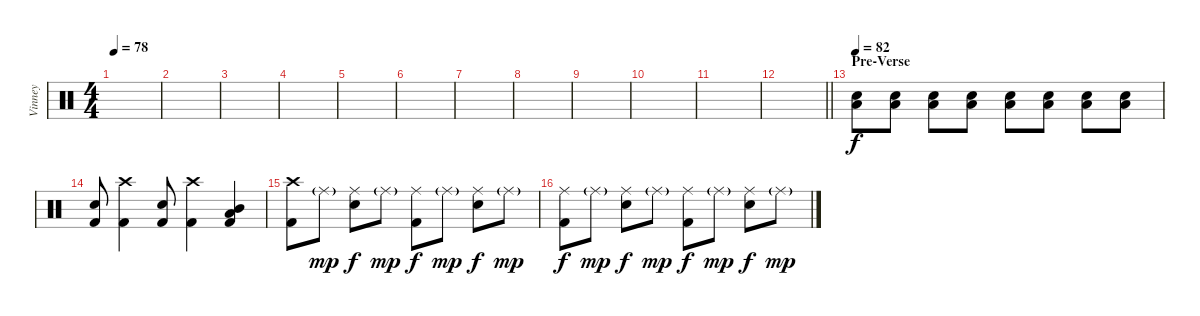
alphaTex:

\track ("Vinney" "Vinney") {instrument percussion}
\staff {score}
\articulation defaults
\ts (4 4)
\tempo 78
\clef neutral
\ks c
|
|
|
|
|
|
|
|
|
|
|
\barLineRight lightlight
|
\section ("" "Pre-Verse")
\tempo 82
("Electric Snare (hit)" "Low Tom (hit)").8 ("Electric Snare (hit)" "Low Tom (hit)").8 ("Electric Snare (hit)" "Low Tom (hit)").8 ("Electric Snare (hit)" "Low Tom (hit)").8 ("Electric Snare (hit)" "Low Tom (hit)").8 ("Electric Snare (hit)" "Low Tom (hit)").8 ("Electric Snare (hit)" "Low Tom (hit)").8 ("Electric Snare (hit)" "Low Tom (hit)").8 |
("Electric Snare (hit)" "Kick (hit) 2").8 ("Crash high (hit)" "Kick (hit) 2").4 ("Electric Snare (hit)" "Kick (hit) 2").8 ("Crash high (hit)" "Kick (hit) 2").4 ("Mid Tom (hit)" "Low Tom (hit)" "Kick (hit) 2").4 |
("Crash high (hit)" "Kick (hit) 2").8 "Ride (middle)"{g}.8{dy mp} ("Ride (middle)" "Electric Snare (hit)").8{dy f} "Ride (middle)"{g}.8{dy mp} ("Ride (middle)" "Kick (hit) 2").8{dy f} "Ride (middle)"{g}.8{dy mp} ("Ride (middle)" "Electric Snare (hit)").8{dy f} "Ride (middle)"{g}.8{dy mp} |
("Ride (middle)" "Kick (hit) 2").8{dy f} "Ride (middle)"{g}.8{dy mp} ("Ride (middle)" "Electric Snare (hit)").8{dy f} "Ride (middle)"{g}.8{dy mp} ("Ride (middle)" "Kick (hit) 2").8{dy f} "Ride (middle)"{g}.8{dy mp} ("Ride (middle)" "Electric Snare (hit)").8{dy f} "Ride (middle)"{g}.8{dy mp}
